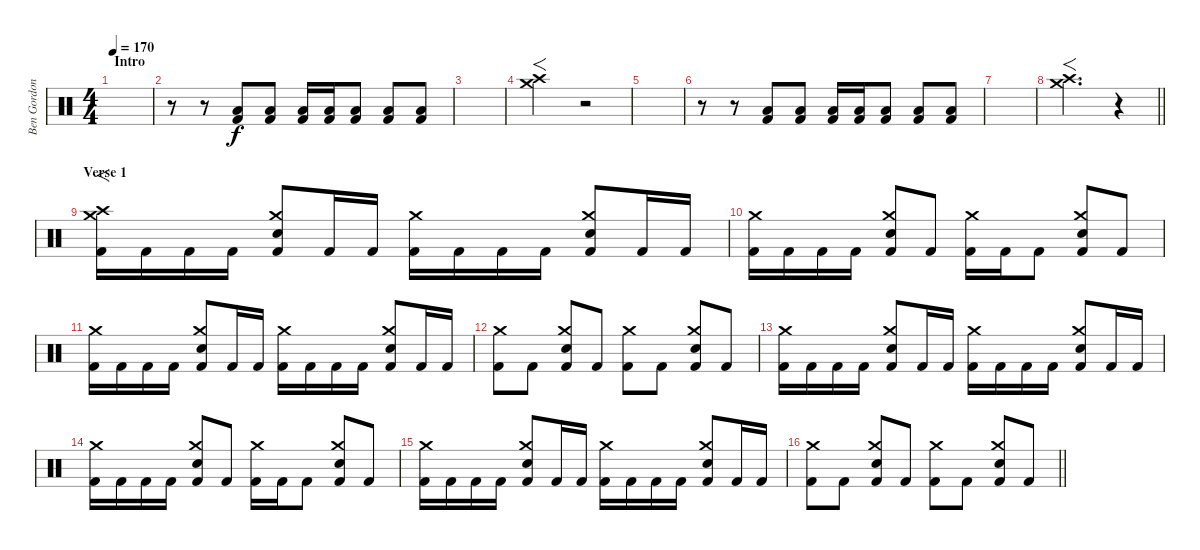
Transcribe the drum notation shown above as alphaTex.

\track ("Ben Gordon" "Ben Gordon") {instrument percussion}
\staff {score}
\articulation defaults
\ts (4 4)
\section ("" "Intro")
\tempo 170
\clef neutral
\ks c
|
r.8 r.8 ("Low Floor Tom (hit)" "Kick (hit) 2").8 ("Low Floor Tom (hit)" "Kick (hit) 2").8 ("Low Floor Tom (hit)" "Kick (hit) 2").16 ("Low Floor Tom (hit)" "Kick (hit) 2").16 ("Low Floor Tom (hit)" "Kick (hit) 2").8 ("Low Floor Tom (hit)" "Kick (hit) 2").8 ("Low Floor Tom (hit)" "Kick (hit) 2").8 |
|
("Crash medium (hit)" "Crash high (hit)").2{f} r.2 |
|
r.8 r.8 ("Low Floor Tom (hit)" "Kick (hit) 2").8 ("Low Floor Tom (hit)" "Kick (hit) 2").8 ("Low Floor Tom (hit)" "Kick (hit) 2").16 ("Low Floor Tom (hit)" "Kick (hit) 2").16 ("Low Floor Tom (hit)" "Kick (hit) 2").8 ("Low Floor Tom (hit)" "Kick (hit) 2").8 ("Low Floor Tom (hit)" "Kick (hit) 2").8 |
|
\barLineRight lightlight
("Crash medium (hit)" "Crash high (hit)").2{f d} r.4 |
\section ("" "Verse 1")
("Crash medium (hit)" "Crash high (hit)" "Kick (hit) 2").16{f} "Kick (hit) 2".16 "Kick (hit) 2".16 "Kick (hit) 2".16 ("Crash medium (hit)" "Electric Snare (hit)" "Kick (hit) 2").8 "Kick (hit) 2".16 "Kick (hit) 2".16 ("Crash medium (hit)" "Kick (hit) 2").16 "Kick (hit) 2".16 "Kick (hit) 2".16 "Kick (hit) 2".16 ("Crash medium (hit)" "Electric Snare (hit)" "Kick (hit) 2").8 "Kick (hit) 2".16 "Kick (hit) 2".16 |
("Crash medium (hit)" "Kick (hit) 2").16 "Kick (hit) 2".16 "Kick (hit) 2".16 "Kick (hit) 2".16 ("Crash medium (hit)" "Electric Snare (hit)" "Kick (hit) 2").8 "Kick (hit) 2".8 ("Crash medium (hit)" "Kick (hit) 2").16 "Kick (hit) 2".16 "Kick (hit) 2".8 ("Crash medium (hit)" "Electric Snare (hit)" "Kick (hit) 2").8 "Kick (hit) 2".8 |
("Crash medium (hit)" "Kick (hit) 2").16 "Kick (hit) 2".16 "Kick (hit) 2".16 "Kick (hit) 2".16 ("Crash medium (hit)" "Electric Snare (hit)" "Kick (hit) 2").8 "Kick (hit) 2".16 "Kick (hit) 2".16 ("Crash medium (hit)" "Kick (hit) 2").16 "Kick (hit) 2".16 "Kick (hit) 2".16 "Kick (hit) 2".16 ("Crash medium (hit)" "Electric Snare (hit)" "Kick (hit) 2").8 "Kick (hit) 2".16 "Kick (hit) 2".16 |
("Crash medium (hit)" "Kick (hit) 2").8 "Kick (hit) 2".8 ("Crash medium (hit)" "Electric Snare (hit)" "Kick (hit) 2").8 "Kick (hit) 2".8 ("Crash medium (hit)" "Kick (hit) 2").8 "Kick (hit) 2".8 ("Crash medium (hit)" "Electric Snare (hit)" "Kick (hit) 2").8 "Kick (hit) 2".8 |
("Crash medium (hit)" "Kick (hit) 2").16 "Kick (hit) 2".16 "Kick (hit) 2".16 "Kick (hit) 2".16 ("Crash medium (hit)" "Electric Snare (hit)" "Kick (hit) 2").8 "Kick (hit) 2".16 "Kick (hit) 2".16 ("Crash medium (hit)" "Kick (hit) 2").16 "Kick (hit) 2".16 "Kick (hit) 2".16 "Kick (hit) 2".16 ("Crash medium (hit)" "Electric Snare (hit)" "Kick (hit) 2").8 "Kick (hit) 2".16 "Kick (hit) 2".16 |
("Crash medium (hit)" "Kick (hit) 2").16 "Kick (hit) 2".16 "Kick (hit) 2".16 "Kick (hit) 2".16 ("Crash medium (hit)" "Electric Snare (hit)" "Kick (hit) 2").8 "Kick (hit) 2".8 ("Crash medium (hit)" "Kick (hit) 2").16 "Kick (hit) 2".16 "Kick (hit) 2".8 ("Crash medium (hit)" "Electric Snare (hit)" "Kick (hit) 2").8 "Kick (hit) 2".8 |
("Crash medium (hit)" "Kick (hit) 2").16 "Kick (hit) 2".16 "Kick (hit) 2".16 "Kick (hit) 2".16 ("Crash medium (hit)" "Electric Snare (hit)" "Kick (hit) 2").8 "Kick (hit) 2".16 "Kick (hit) 2".16 ("Crash medium (hit)" "Kick (hit) 2").16 "Kick (hit) 2".16 "Kick (hit) 2".16 "Kick (hit) 2".16 ("Crash medium (hit)" "Electric Snare (hit)" "Kick (hit) 2").8 "Kick (hit) 2".16 "Kick (hit) 2".16 |
\barLineRight lightlight
("Crash medium (hit)" "Kick (hit) 2").8 "Kick (hit) 2".8 ("Crash medium (hit)" "Electric Snare (hit)" "Kick (hit) 2").8 "Kick (hit) 2".8 ("Crash medium (hit)" "Kick (hit) 2").8 "Kick (hit) 2".8 ("Crash medium (hit)" "Electric Snare (hit)" "Kick (hit) 2").8 "Kick (hit) 2".8
